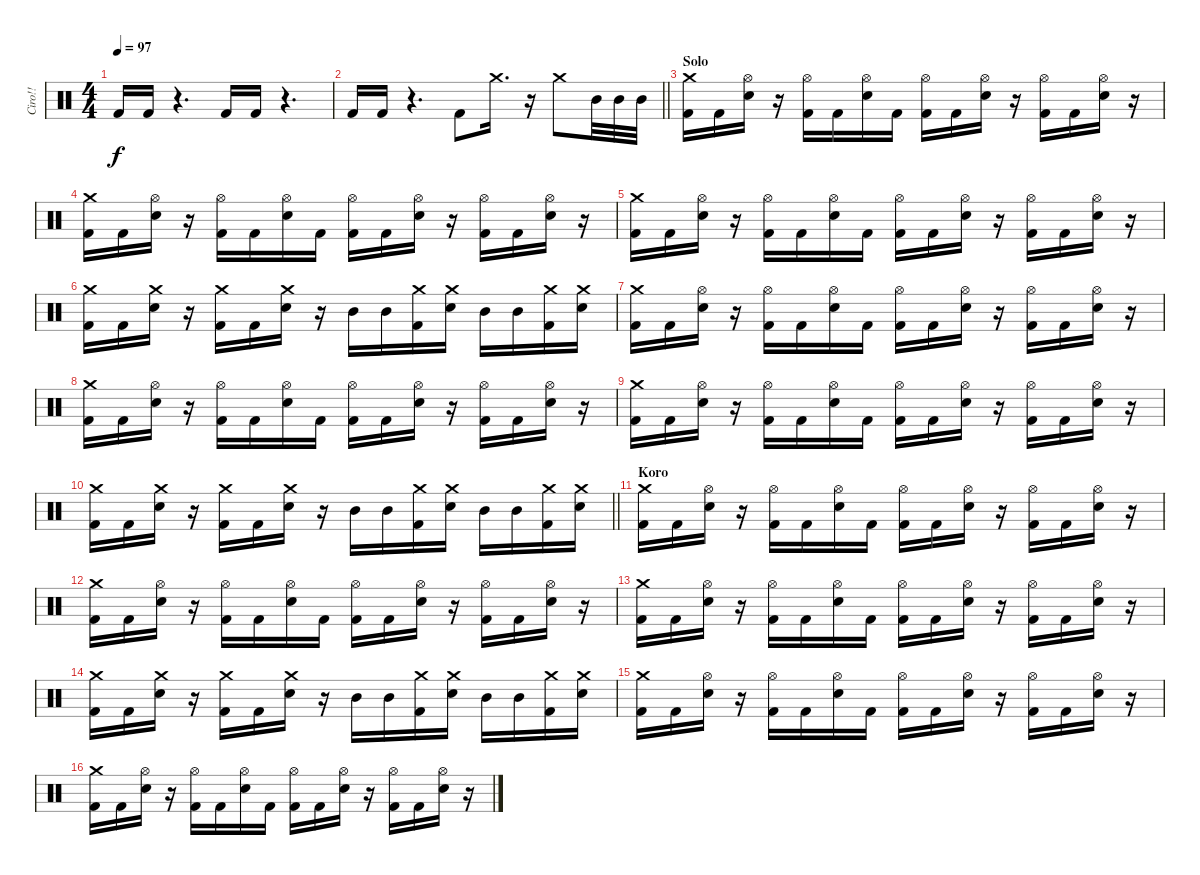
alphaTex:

\track ("Ciro!!" "Ciro!!") {instrument percussion}
\staff {score}
\articulation defaults
\ts (4 4)
\tempo 97
\clef neutral
\ks c "Kick (hit) 2".16{dy f} "Kick (hit) 2".16
r.4{d} "Kick (hit) 2".16 "Kick (hit) 2".16 r.4{d} |
\barLineRight lightlight "Kick (hit) 2".16 "Kick (hit) 2".16
r.4{d} "Kick (hit) 2".8 "Crash medium (hit)".16{d} r.16 "Crash medium (hit)".8 "Mid Tom (hit)".32 "Mid Tom (hit)".32 "Mid Tom (hit)".32 |
\section ("" "Solo")
("Crash medium (hit)" "Kick (hit) 2").16 "Kick (hit) 2".16 ("Hi-Hat (open)" "Electric Snare (hit)").16 r.16 ("Hi-Hat (open)" "Kick (hit) 2").16 "Kick (hit) 2".16 ("Hi-Hat (open)" "Electric Snare (hit)").16 "Kick (hit) 2".16 ("Hi-Hat (open)" "Kick (hit) 2").16 "Kick (hit) 2".16 ("Hi-Hat (open)" "Electric Snare (hit)").16 r.16 ("Hi-Hat (open)" "Kick (hit) 2").16 "Kick (hit) 2".16 ("Hi-Hat (open)" "Electric Snare (hit)").16 r.16 |
("Crash medium (hit)" "Kick (hit) 2").16 "Kick (hit) 2".16 ("Hi-Hat (open)" "Electric Snare (hit)").16 r.16 ("Hi-Hat (open)" "Kick (hit) 2").16 "Kick (hit) 2".16 ("Hi-Hat (open)" "Electric Snare (hit)").16 "Kick (hit) 2".16 ("Hi-Hat (open)" "Kick (hit) 2").16 "Kick (hit) 2".16 ("Hi-Hat (open)" "Electric Snare (hit)").16 r.16 ("Hi-Hat (open)" "Kick (hit) 2").16 "Kick (hit) 2".16 ("Hi-Hat (open)" "Electric Snare (hit)").16 r.16 |
("Crash medium (hit)" "Kick (hit) 2").16 "Kick (hit) 2".16 ("Hi-Hat (open)" "Electric Snare (hit)").16 r.16 ("Hi-Hat (open)" "Kick (hit) 2").16 "Kick (hit) 2".16 ("Hi-Hat (open)" "Electric Snare (hit)").16 "Kick (hit) 2".16 ("Hi-Hat (open)" "Kick (hit) 2").16 "Kick (hit) 2".16 ("Hi-Hat (open)" "Electric Snare (hit)").16 r.16 ("Hi-Hat (open)" "Kick (hit) 2").16 "Kick (hit) 2".16 ("Hi-Hat (open)" "Electric Snare (hit)").16 r.16 |
("Crash medium (hit)" "Kick (hit) 2").16 "Kick (hit) 2".16 ("Crash medium (hit)" "Electric Snare (hit)").16 r.16 ("Crash medium (hit)" "Kick (hit) 2").16 "Kick (hit) 2".16 ("Crash medium (hit)" "Electric Snare (hit)").16 r.16 "Mid Tom (hit)".16 "Mid Tom (hit)".16 ("Crash medium (hit)" "Kick (hit) 2").16 ("Crash medium (hit)" "Electric Snare (hit)").16 "Mid Tom (hit)".16 "Mid Tom (hit)".16 ("Crash medium (hit)" "Kick (hit) 2").16 ("Crash medium (hit)" "Electric Snare (hit)").16 |
("Crash medium (hit)" "Kick (hit) 2").16 "Kick (hit) 2".16 ("Hi-Hat (open)" "Electric Snare (hit)").16 r.16 ("Hi-Hat (open)" "Kick (hit) 2").16 "Kick (hit) 2".16 ("Hi-Hat (open)" "Electric Snare (hit)").16 "Kick (hit) 2".16 ("Hi-Hat (open)" "Kick (hit) 2").16 "Kick (hit) 2".16 ("Hi-Hat (open)" "Electric Snare (hit)").16 r.16 ("Hi-Hat (open)" "Kick (hit) 2").16 "Kick (hit) 2".16 ("Hi-Hat (open)" "Electric Snare (hit)").16 r.16 |
("Crash medium (hit)" "Kick (hit) 2").16 "Kick (hit) 2".16 ("Hi-Hat (open)" "Electric Snare (hit)").16 r.16 ("Hi-Hat (open)" "Kick (hit) 2").16 "Kick (hit) 2".16 ("Hi-Hat (open)" "Electric Snare (hit)").16 "Kick (hit) 2".16 ("Hi-Hat (open)" "Kick (hit) 2").16 "Kick (hit) 2".16 ("Hi-Hat (open)" "Electric Snare (hit)").16 r.16 ("Hi-Hat (open)" "Kick (hit) 2").16 "Kick (hit) 2".16 ("Hi-Hat (open)" "Electric Snare (hit)").16 r.16 |
("Crash medium (hit)" "Kick (hit) 2").16 "Kick (hit) 2".16 ("Hi-Hat (open)" "Electric Snare (hit)").16 r.16 ("Hi-Hat (open)" "Kick (hit) 2").16 "Kick (hit) 2".16 ("Hi-Hat (open)" "Electric Snare (hit)").16 "Kick (hit) 2".16 ("Hi-Hat (open)" "Kick (hit) 2").16 "Kick (hit) 2".16 ("Hi-Hat (open)" "Electric Snare (hit)").16 r.16 ("Hi-Hat (open)" "Kick (hit) 2").16 "Kick (hit) 2".16 ("Hi-Hat (open)" "Electric Snare (hit)").16 r.16 |
\barLineRight lightlight
("Crash medium (hit)" "Kick (hit) 2").16 "Kick (hit) 2".16 ("Crash medium (hit)" "Electric Snare (hit)").16 r.16 ("Crash medium (hit)" "Kick (hit) 2").16 "Kick (hit) 2".16 ("Crash medium (hit)" "Electric Snare (hit)").16 r.16 "Mid Tom (hit)".16 "Mid Tom (hit)".16 ("Crash medium (hit)" "Kick (hit) 2").16 ("Crash medium (hit)" "Electric Snare (hit)").16 "Mid Tom (hit)".16 "Mid Tom (hit)".16 ("Crash medium (hit)" "Kick (hit) 2").16 ("Crash medium (hit)" "Electric Snare (hit)").16 |
\section ("" "Koro")
("Crash medium (hit)" "Kick (hit) 2").16 "Kick (hit) 2".16 ("Hi-Hat (open)" "Electric Snare (hit)").16 r.16 ("Hi-Hat (open)" "Kick (hit) 2").16 "Kick (hit) 2".16 ("Hi-Hat (open)" "Electric Snare (hit)").16 "Kick (hit) 2".16 ("Hi-Hat (open)" "Kick (hit) 2").16 "Kick (hit) 2".16 ("Hi-Hat (open)" "Electric Snare (hit)").16 r.16 ("Hi-Hat (open)" "Kick (hit) 2").16 "Kick (hit) 2".16 ("Hi-Hat (open)" "Electric Snare (hit)").16 r.16 |
("Crash medium (hit)" "Kick (hit) 2").16 "Kick (hit) 2".16 ("Hi-Hat (open)" "Electric Snare (hit)").16 r.16 ("Hi-Hat (open)" "Kick (hit) 2").16 "Kick (hit) 2".16 ("Hi-Hat (open)" "Electric Snare (hit)").16 "Kick (hit) 2".16 ("Hi-Hat (open)" "Kick (hit) 2").16 "Kick (hit) 2".16 ("Hi-Hat (open)" "Electric Snare (hit)").16 r.16 ("Hi-Hat (open)" "Kick (hit) 2").16 "Kick (hit) 2".16 ("Hi-Hat (open)" "Electric Snare (hit)").16 r.16 |
("Crash medium (hit)" "Kick (hit) 2").16 "Kick (hit) 2".16 ("Hi-Hat (open)" "Electric Snare (hit)").16 r.16 ("Hi-Hat (open)" "Kick (hit) 2").16 "Kick (hit) 2".16 ("Hi-Hat (open)" "Electric Snare (hit)").16 "Kick (hit) 2".16 ("Hi-Hat (open)" "Kick (hit) 2").16 "Kick (hit) 2".16 ("Hi-Hat (open)" "Electric Snare (hit)").16 r.16 ("Hi-Hat (open)" "Kick (hit) 2").16 "Kick (hit) 2".16 ("Hi-Hat (open)" "Electric Snare (hit)").16 r.16 |
("Crash medium (hit)" "Kick (hit) 2").16 "Kick (hit) 2".16 ("Crash medium (hit)" "Electric Snare (hit)").16 r.16 ("Crash medium (hit)" "Kick (hit) 2").16 "Kick (hit) 2".16 ("Crash medium (hit)" "Electric Snare (hit)").16 r.16 "Mid Tom (hit)".16 "Mid Tom (hit)".16 ("Crash medium (hit)" "Kick (hit) 2").16 ("Crash medium (hit)" "Electric Snare (hit)").16 "Mid Tom (hit)".16 "Mid Tom (hit)".16 ("Crash medium (hit)" "Kick (hit) 2").16 ("Crash medium (hit)" "Electric Snare (hit)").16 |
("Crash medium (hit)" "Kick (hit) 2").16 "Kick (hit) 2".16 ("Hi-Hat (open)" "Electric Snare (hit)").16 r.16 ("Hi-Hat (open)" "Kick (hit) 2").16 "Kick (hit) 2".16 ("Hi-Hat (open)" "Electric Snare (hit)").16 "Kick (hit) 2".16 ("Hi-Hat (open)" "Kick (hit) 2").16 "Kick (hit) 2".16 ("Hi-Hat (open)" "Electric Snare (hit)").16 r.16 ("Hi-Hat (open)" "Kick (hit) 2").16 "Kick (hit) 2".16 ("Hi-Hat (open)" "Electric Snare (hit)").16 r.16 |
("Crash medium (hit)" "Kick (hit) 2").16 "Kick (hit) 2".16 ("Hi-Hat (open)" "Electric Snare (hit)").16 r.16 ("Hi-Hat (open)" "Kick (hit) 2").16 "Kick (hit) 2".16 ("Hi-Hat (open)" "Electric Snare (hit)").16 "Kick (hit) 2".16 ("Hi-Hat (open)" "Kick (hit) 2").16 "Kick (hit) 2".16 ("Hi-Hat (open)" "Electric Snare (hit)").16 r.16 ("Hi-Hat (open)" "Kick (hit) 2").16 "Kick (hit) 2".16 ("Hi-Hat (open)" "Electric Snare (hit)").16 r.16
